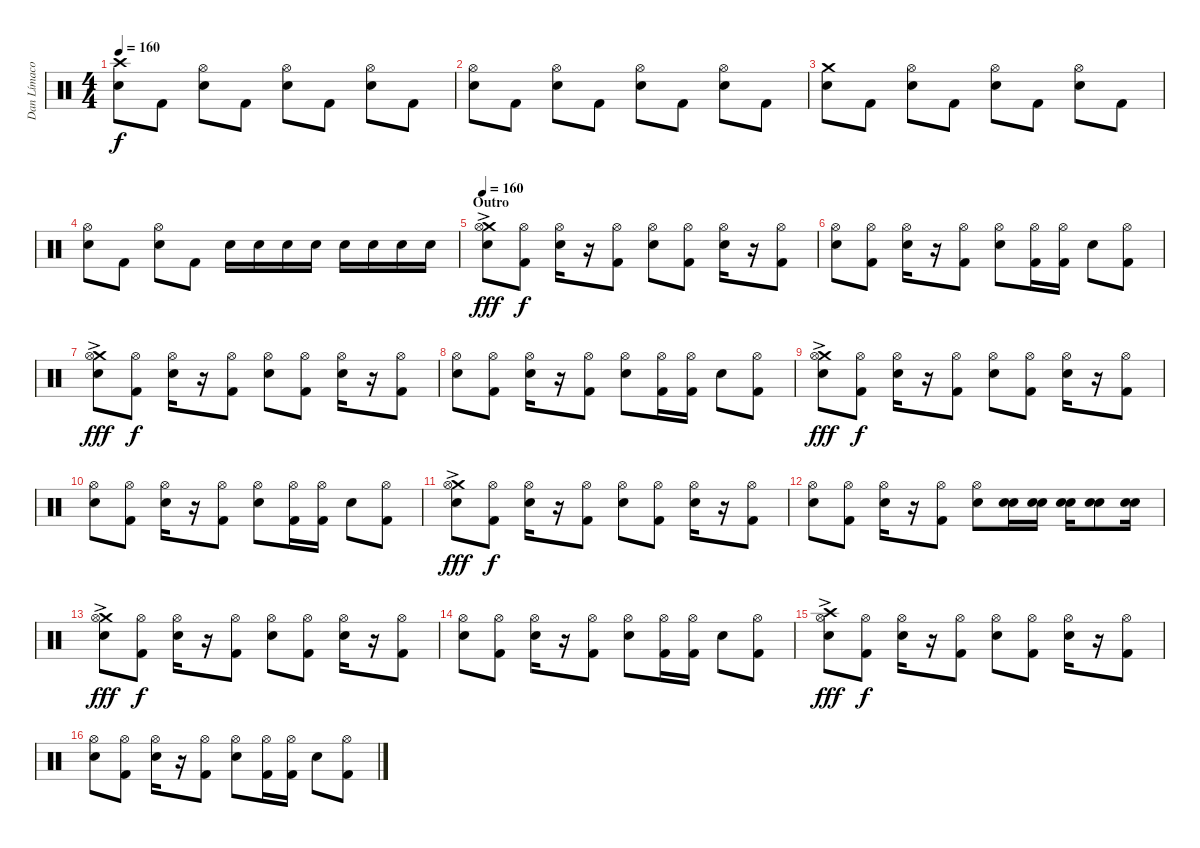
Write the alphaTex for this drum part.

\track ("Dan Límaco" "Dan Límaco") {instrument percussion}
\staff {score}
\articulation defaults
\ts (4 4)
\tempo 160
\clef neutral
\ks c
("Crash high (hit)" "Snare (hit) 2").8{dy f} "Kick (hit) 2".8 ("Hi-Hat (open)" "Snare (hit) 2").8 "Kick (hit) 2".8 ("Hi-Hat (open)" "Snare (hit) 2").8 "Kick (hit) 2".8 ("Hi-Hat (open)" "Snare (hit) 2").8 "Kick (hit) 2".8 |
("Hi-Hat (open)" "Snare (hit) 2").8 "Kick (hit) 2".8 ("Hi-Hat (open)" "Snare (hit) 2").8 "Kick (hit) 2".8 ("Hi-Hat (open)" "Snare (hit) 2").8 "Kick (hit) 2".8 ("Hi-Hat (open)" "Snare (hit) 2").8 "Kick (hit) 2".8 |
("Crash medium (hit)" "Snare (hit) 2").8 "Kick (hit) 2".8 ("Hi-Hat (open)" "Snare (hit) 2").8 "Kick (hit) 2".8 ("Hi-Hat (open)" "Snare (hit) 2").8 "Kick (hit) 2".8 ("Hi-Hat (open)" "Snare (hit) 2").8 "Kick (hit) 2".8 |
("Hi-Hat (open)" "Snare (hit) 2").8 "Kick (hit) 2".8 ("Hi-Hat (open)" "Snare (hit) 2").8 "Kick (hit) 2".8 "Snare (hit) 2".16 "Snare (hit) 2".16 "Snare (hit) 2".16 "Snare (hit) 2".16 "Snare (hit) 2".16 "Snare (hit) 2".16 "Snare (hit) 2".16 "Snare (hit) 2".16 |
\section ("" "Outro")
\tempo 160
("Crash medium (hit)"{ac} "Hi-Hat (open)" "Snare (hit) 2").8{dy fff volume 12} ("Hi-Hat (open)" "Kick (hit) 2").8{dy f} ("Hi-Hat (open)" "Snare (hit) 2").16 r.16 ("Hi-Hat (open)" "Kick (hit) 2").8 ("Hi-Hat (open)" "Snare (hit) 2").8 ("Hi-Hat (open)" "Kick (hit) 2").8 ("Hi-Hat (open)" "Snare (hit) 2").16 r.16 ("Hi-Hat (open)" "Kick (hit) 2").8 |
("Hi-Hat (open)" "Snare (hit) 2").8{volume 12} ("Hi-Hat (open)" "Kick (hit) 2").8 ("Hi-Hat (open)" "Snare (hit) 2").16 r.16 ("Hi-Hat (open)" "Kick (hit) 2").8 ("Hi-Hat (open)" "Snare (hit) 2").8 ("Hi-Hat (open)" "Kick (hit) 2").16 ("Hi-Hat (open)" "Kick (hit) 2").16 "Snare (hit) 2".8 ("Hi-Hat (open)" "Kick (hit) 2").8 |
("Crash medium (hit)"{ac} "Hi-Hat (open)" "Snare (hit) 2").8{dy fff volume 12} ("Hi-Hat (open)" "Kick (hit) 2").8{dy f} ("Hi-Hat (open)" "Snare (hit) 2").16 r.16 ("Hi-Hat (open)" "Kick (hit) 2").8 ("Hi-Hat (open)" "Snare (hit) 2").8 ("Hi-Hat (open)" "Kick (hit) 2").8 ("Hi-Hat (open)" "Snare (hit) 2").16 r.16 ("Hi-Hat (open)" "Kick (hit) 2").8 |
("Hi-Hat (open)" "Snare (hit) 2").8{volume 12} ("Hi-Hat (open)" "Kick (hit) 2").8 ("Hi-Hat (open)" "Snare (hit) 2").16 r.16 ("Hi-Hat (open)" "Kick (hit) 2").8 ("Hi-Hat (open)" "Snare (hit) 2").8 ("Hi-Hat (open)" "Kick (hit) 2").16 ("Hi-Hat (open)" "Kick (hit) 2").16 "Snare (hit) 2".8 ("Hi-Hat (open)" "Kick (hit) 2").8 |
("Crash medium (hit)"{ac} "Hi-Hat (open)" "Snare (hit) 2").8{dy fff volume 12} ("Hi-Hat (open)" "Kick (hit) 2").8{dy f} ("Hi-Hat (open)" "Snare (hit) 2").16 r.16 ("Hi-Hat (open)" "Kick (hit) 2").8 ("Hi-Hat (open)" "Snare (hit) 2").8 ("Hi-Hat (open)" "Kick (hit) 2").8 ("Hi-Hat (open)" "Snare (hit) 2").16 r.16 ("Hi-Hat (open)" "Kick (hit) 2").8 |
("Hi-Hat (open)" "Snare (hit) 2").8{volume 12} ("Hi-Hat (open)" "Kick (hit) 2").8 ("Hi-Hat (open)" "Snare (hit) 2").16 r.16 ("Hi-Hat (open)" "Kick (hit) 2").8 ("Hi-Hat (open)" "Snare (hit) 2").8 ("Hi-Hat (open)" "Kick (hit) 2").16 ("Hi-Hat (open)" "Kick (hit) 2").16 "Snare (hit) 2".8 ("Hi-Hat (open)" "Kick (hit) 2").8 |
("Crash medium (hit)"{ac} "Hi-Hat (open)" "Snare (hit) 2").8{dy fff volume 12} ("Hi-Hat (open)" "Kick (hit) 2").8{dy f} ("Hi-Hat (open)" "Snare (hit) 2").16 r.16 ("Hi-Hat (open)" "Kick (hit) 2").8 ("Hi-Hat (open)" "Snare (hit) 2").8 ("Hi-Hat (open)" "Kick (hit) 2").8 ("Hi-Hat (open)" "Snare (hit) 2").16 r.16 ("Hi-Hat (open)" "Kick (hit) 2").8 |
("Hi-Hat (open)" "Snare (hit) 2").8{volume 12} ("Hi-Hat (open)" "Kick (hit) 2").8 ("Hi-Hat (open)" "Snare (hit) 2").16 r.16 ("Hi-Hat (open)" "Kick (hit) 2").8 ("Hi-Hat (open)" "Snare (hit) 2").8 ("Snare (hit) 2" "Snare (hit) 2").16 ("Snare (hit) 2" "Snare (hit) 2").16 ("Snare (hit) 2" "Snare (hit) 2").16 ("Snare (hit) 2" "Snare (hit) 2").8 ("Snare (hit) 2" "Snare (hit) 2").16 |
("Crash medium (hit)"{ac} "Hi-Hat (open)" "Snare (hit) 2").8{dy fff volume 12} ("Hi-Hat (open)" "Kick (hit) 2").8{dy f} ("Hi-Hat (open)" "Snare (hit) 2").16 r.16 ("Hi-Hat (open)" "Kick (hit) 2").8 ("Hi-Hat (open)" "Snare (hit) 2").8 ("Hi-Hat (open)" "Kick (hit) 2").8 ("Hi-Hat (open)" "Snare (hit) 2").16 r.16 ("Hi-Hat (open)" "Kick (hit) 2").8 |
("Hi-Hat (open)" "Snare (hit) 2").8{volume 12} ("Hi-Hat (open)" "Kick (hit) 2").8 ("Hi-Hat (open)" "Snare (hit) 2").16 r.16 ("Hi-Hat (open)" "Kick (hit) 2").8 ("Hi-Hat (open)" "Snare (hit) 2").8 ("Hi-Hat (open)" "Kick (hit) 2").16 ("Hi-Hat (open)" "Kick (hit) 2").16 "Snare (hit) 2".8 ("Hi-Hat (open)" "Kick (hit) 2").8 |
("Crash high (hit)"{ac} "Hi-Hat (open)" "Snare (hit) 2").8{dy fff volume 12} ("Hi-Hat (open)" "Kick (hit) 2").8{dy f} ("Hi-Hat (open)" "Snare (hit) 2").16 r.16 ("Hi-Hat (open)" "Kick (hit) 2").8 ("Hi-Hat (open)" "Snare (hit) 2").8 ("Hi-Hat (open)" "Kick (hit) 2").8 ("Hi-Hat (open)" "Snare (hit) 2").16 r.16 ("Hi-Hat (open)" "Kick (hit) 2").8 |
("Hi-Hat (open)" "Snare (hit) 2").8{volume 12} ("Hi-Hat (open)" "Kick (hit) 2").8 ("Hi-Hat (open)" "Snare (hit) 2").16 r.16 ("Hi-Hat (open)" "Kick (hit) 2").8 ("Hi-Hat (open)" "Snare (hit) 2").8 ("Hi-Hat (open)" "Kick (hit) 2").16 ("Hi-Hat (open)" "Kick (hit) 2").16 "Snare (hit) 2".8 ("Hi-Hat (open)" "Kick (hit) 2").8
